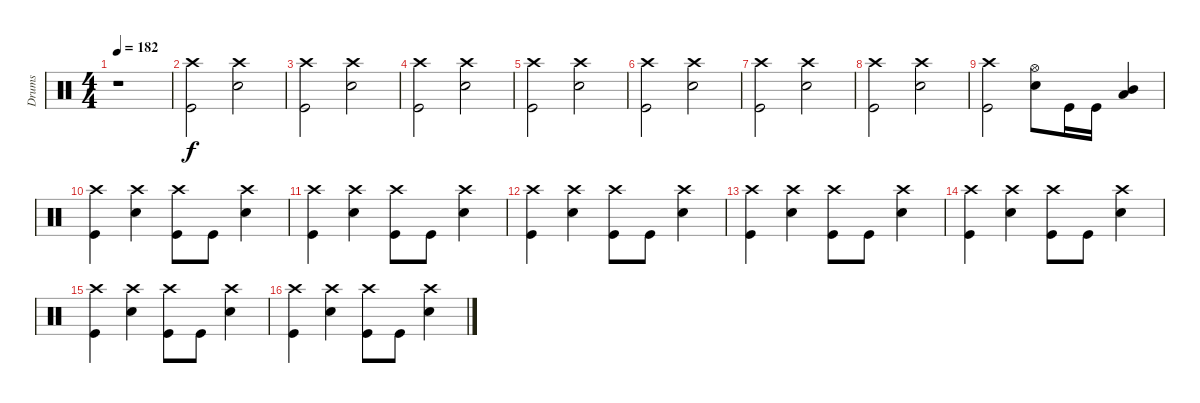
\track ("Drums" "Drums") {instrument percussion}
\staff {score}
\articulation defaults
\ts (4 4)
\tempo 182
\clef neutral
\ks c
r.1{dy f} |
("Crash high (hit)" "Kick (hit)").2 ("Crash high (hit)" "Electric Snare (hit)").2 |
("Crash high (hit)" "Kick (hit)").2 ("Crash high (hit)" "Electric Snare (hit)").2 |
("Crash high (hit)" "Kick (hit)").2 ("Crash high (hit)" "Electric Snare (hit)").2 |
("Crash high (hit)" "Kick (hit)").2 ("Crash high (hit)" "Electric Snare (hit)").2 |
("Crash high (hit)" "Kick (hit)").2 ("Crash high (hit)" "Electric Snare (hit)").2 |
("Crash high (hit)" "Kick (hit)").2 ("Crash high (hit)" "Electric Snare (hit)").2 |
("Crash high (hit)" "Kick (hit)").2 ("Crash high (hit)" "Electric Snare (hit)").2 |
("Crash high (hit)" "Kick (hit)").2 ("Hi-Hat (open)" "Electric Snare (hit)").8 "Kick (hit)".16 "Kick (hit)".16 ("Mid Tom (hit)" "Low Tom (hit)").4 |
("Crash high (hit)" "Kick (hit)").4 ("Crash high (hit)" "Electric Snare (hit)").4 ("Crash high (hit)" "Kick (hit)").8 "Kick (hit)".8 ("Crash high (hit)" "Electric Snare (hit)").4 |
("Crash high (hit)" "Kick (hit)").4 ("Crash high (hit)" "Electric Snare (hit)").4 ("Crash high (hit)" "Kick (hit)").8 "Kick (hit)".8 ("Crash high (hit)" "Electric Snare (hit)").4 |
("Crash high (hit)" "Kick (hit)").4 ("Crash high (hit)" "Electric Snare (hit)").4 ("Crash high (hit)" "Kick (hit)").8 "Kick (hit)".8 ("Crash high (hit)" "Electric Snare (hit)").4 |
("Crash high (hit)" "Kick (hit)").4 ("Crash high (hit)" "Electric Snare (hit)").4 ("Crash high (hit)" "Kick (hit)").8 "Kick (hit)".8 ("Crash high (hit)" "Electric Snare (hit)").4 |
("Crash high (hit)" "Kick (hit)").4 ("Crash high (hit)" "Electric Snare (hit)").4 ("Crash high (hit)" "Kick (hit)").8 "Kick (hit)".8 ("Crash high (hit)" "Electric Snare (hit)").4 |
("Crash high (hit)" "Kick (hit)").4 ("Crash high (hit)" "Electric Snare (hit)").4 ("Crash high (hit)" "Kick (hit)").8 "Kick (hit)".8 ("Crash high (hit)" "Electric Snare (hit)").4 |
("Crash high (hit)" "Kick (hit)").4 ("Crash high (hit)" "Electric Snare (hit)").4 ("Crash high (hit)" "Kick (hit)").8 "Kick (hit)".8 ("Crash high (hit)" "Electric Snare (hit)").4
